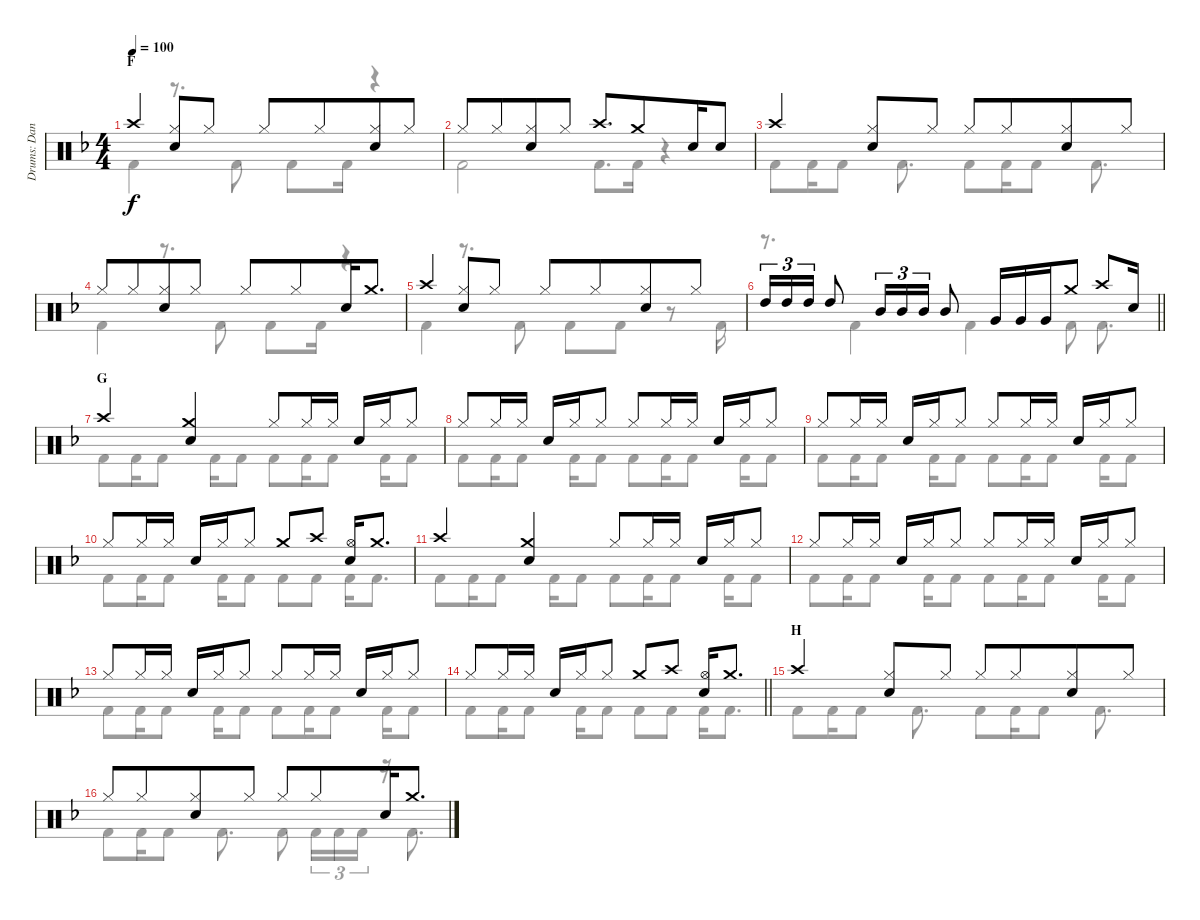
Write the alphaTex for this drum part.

\track ("Drums: Dana" "Drums: Dan") {instrument percussion}
\staff {score}
\articulation defaults
\voice
\ts (4 4)
\section ("" "F")
\tempo 100
\clef neutral
\ks f "Crash high (hit)".4{dy f beam merge}
("Hi-Hat (closed)" "Snare (hit) 2").8 "Hi-Hat (closed)".8 "Hi-Hat (closed)".8 "Hi-Hat (closed)".8{beam merge} ("Hi-Hat (closed)" "Snare (hit) 2").8 "Hi-Hat (closed)".8 |
"Hi-Hat (closed)".8 "Hi-Hat (closed)".8{beam merge} ("Hi-Hat (closed)" "Snare (hit) 2").8 "Hi-Hat (closed)".8 "Crash high (hit)".8{d} "Crash medium (hit)".8{beam merge} "Snare (hit) 2".16 "Snare (hit) 2".8 |
"Crash high (hit)".4{beam merge} ("Hi-Hat (closed)" "Snare (hit) 2").8 "Hi-Hat (closed)".8 "Hi-Hat (closed)".8 "Hi-Hat (closed)".8{beam merge} ("Hi-Hat (closed)" "Snare (hit) 2").8 "Hi-Hat (closed)".8 |
"Hi-Hat (closed)".8 "Hi-Hat (closed)".8{beam merge} ("Hi-Hat (closed)" "Snare (hit) 2").8 "Hi-Hat (closed)".8 "Hi-Hat (closed)".8 "Hi-Hat (closed)".8{beam merge} "Snare (hit) 2".16 "Crash medium (hit)".8{d} |
"Crash high (hit)".4{beam merge} ("Hi-Hat (closed)" "Snare (hit) 2").8 "Hi-Hat (closed)".8 "Hi-Hat (closed)".8 "Hi-Hat (closed)".8{beam merge} ("Hi-Hat (closed)" "Snare (hit) 2").8 "Hi-Hat (closed)".8 |
\barLineRight lightlight "High Tom (hit)".16{tu (3 2)} "High Tom (hit)".16{tu (3 2) beam merge} "High Tom (hit)".16{tu (3 2)} "High Tom (hit)".8 "Mid Tom (hit)".16{tu (3 2)} "Mid Tom (hit)".16{tu (3 2) beam merge} "Mid Tom (hit)".16{tu (3 2)} "Mid Tom (hit)".8 "Very Low Tom (hit)".16 "Very Low Tom (hit)".16{beam merge} "Very Low Tom (hit)".16 "Crash medium (hit)".8 "Crash high (hit)".8 "Snare (hit) 2".16
|
\section ("" "G")
"Crash high (hit)".4 ("Crash medium (hit)" "Snare (hit) 2").4 "Hi-Hat (closed)".8 "Hi-Hat (closed)".16 "Hi-Hat (closed)".16 "Snare (hit) 2".16 "Hi-Hat (closed)".16 "Hi-Hat (closed)".8 |
"Hi-Hat (closed)".8 "Hi-Hat (closed)".16 "Hi-Hat (closed)".16 "Snare (hit) 2".16 "Hi-Hat (closed)".16 "Hi-Hat (closed)".8 "Hi-Hat (closed)".8 "Hi-Hat (closed)".16 "Hi-Hat (closed)".16 "Snare (hit) 2".16 "Hi-Hat (closed)".16 "Hi-Hat (closed)".8 |
"Hi-Hat (closed)".8 "Hi-Hat (closed)".16 "Hi-Hat (closed)".16 "Snare (hit) 2".16 "Hi-Hat (closed)".16 "Hi-Hat (closed)".8 "Hi-Hat (closed)".8 "Hi-Hat (closed)".16 "Hi-Hat (closed)".16 "Snare (hit) 2".16 "Hi-Hat (closed)".16 "Hi-Hat (closed)".8 |
"Hi-Hat (closed)".8 "Hi-Hat (closed)".16 "Hi-Hat (closed)".16 "Snare (hit) 2".16 "Hi-Hat (closed)".16 "Hi-Hat (closed)".8 "Crash medium (hit)".8 "Crash high (hit)".8 ("Hi-Hat (open)" "Snare (hit) 2").16 "Crash medium (hit)".8{d} |
"Crash high (hit)".4 ("Crash medium (hit)" "Snare (hit) 2").4 "Hi-Hat (closed)".8 "Hi-Hat (closed)".16 "Hi-Hat (closed)".16 "Snare (hit) 2".16 "Hi-Hat (closed)".16 "Hi-Hat (closed)".8 |
"Hi-Hat (closed)".8 "Hi-Hat (closed)".16 "Hi-Hat (closed)".16 "Snare (hit) 2".16 "Hi-Hat (closed)".16 "Hi-Hat (closed)".8 "Hi-Hat (closed)".8 "Hi-Hat (closed)".16 "Hi-Hat (closed)".16 "Snare (hit) 2".16 "Hi-Hat (closed)".16 "Hi-Hat (closed)".8 |
"Hi-Hat (closed)".8 "Hi-Hat (closed)".16 "Hi-Hat (closed)".16 "Snare (hit) 2".16 "Hi-Hat (closed)".16 "Hi-Hat (closed)".8 "Hi-Hat (closed)".8 "Hi-Hat (closed)".16 "Hi-Hat (closed)".16 "Snare (hit) 2".16 "Hi-Hat (closed)".16 "Hi-Hat (closed)".8 |
\barLineRight lightlight "Hi-Hat (closed)".8 "Hi-Hat (closed)".16 "Hi-Hat (closed)".16 "Snare (hit) 2".16 "Hi-Hat (closed)".16 "Hi-Hat (closed)".8 "Crash medium (hit)".8 "Crash high (hit)".8
("Hi-Hat (open)" "Snare (hit) 2").16 "Crash medium (hit)".8{d} |
\section ("" "H")
"Crash high (hit)".4{beam merge} ("Hi-Hat (closed)" "Snare (hit) 2").8 "Hi-Hat (closed)".8 "Hi-Hat (closed)".8 "Hi-Hat (closed)".8{beam merge} ("Hi-Hat (closed)" "Snare (hit) 2").8 "Hi-Hat (closed)".8 |
"Hi-Hat (closed)".8 "Hi-Hat (closed)".8{beam merge} ("Hi-Hat (closed)" "Snare (hit) 2").8 "Hi-Hat (closed)".8 "Hi-Hat (closed)".8 "Hi-Hat (closed)".8{beam merge} "Snare (hit) 2".16 "Crash medium (hit)".8{d}
\voice
\clef neutral
\ottava regular
\simile none
\ks f "Kick (hit) 2".4{dy f}
r.8{d} "Kick (hit) 2".8 "Kick (hit) 2".8 "Kick (hit) 2".16 r.4 |
"Kick (hit) 2".2 "Kick (hit) 2".8{d} "Kick (hit) 2".16 r.4 |
"Kick (hit) 2".8 "Kick (hit) 2".16 "Kick (hit) 2".8 "Kick (hit) 2".8{d} "Kick (hit) 2".8 "Kick (hit) 2".16 "Kick (hit) 2".8 "Kick (hit) 2".8{d} |
"Kick (hit) 2".4 r.8{d} "Kick (hit) 2".8 "Kick (hit) 2".8 "Kick (hit) 2".16 r.4 |
"Kick (hit) 2".4 r.8{d} "Kick (hit) 2".8 "Kick (hit) 2".8 "Kick (hit) 2".8 r.8 "Kick (hit) 2".16 |
\barLineRight lightlight
r.8{d} "Kick (hit) 2".4 "Kick (hit) 2".4 "Kick (hit) 2".8 "Kick (hit) 2".8{d} |
"Kick (hit) 2".8 "Kick (hit) 2".16 "Kick (hit) 2".8 "Kick (hit) 2".16 "Kick (hit) 2".8 "Kick (hit) 2".8 "Kick (hit) 2".16 "Kick (hit) 2".8 "Kick (hit) 2".16 "Kick (hit) 2".8 |
"Kick (hit) 2".8 "Kick (hit) 2".16 "Kick (hit) 2".8 "Kick (hit) 2".16 "Kick (hit) 2".8 "Kick (hit) 2".8 "Kick (hit) 2".16 "Kick (hit) 2".8 "Kick (hit) 2".16 "Kick (hit) 2".8 |
"Kick (hit) 2".8 "Kick (hit) 2".16 "Kick (hit) 2".8 "Kick (hit) 2".16 "Kick (hit) 2".8 "Kick (hit) 2".8 "Kick (hit) 2".16 "Kick (hit) 2".8 "Kick (hit) 2".16 "Kick (hit) 2".8 |
"Kick (hit) 2".8 "Kick (hit) 2".16 "Kick (hit) 2".8 "Kick (hit) 2".16 "Kick (hit) 2".8 "Kick (hit) 2".8 "Kick (hit) 2".8 "Kick (hit) 2".16 "Kick (hit) 2".8{d} |
"Kick (hit) 2".8 "Kick (hit) 2".16 "Kick (hit) 2".8 "Kick (hit) 2".16 "Kick (hit) 2".8 "Kick (hit) 2".8 "Kick (hit) 2".16 "Kick (hit) 2".8 "Kick (hit) 2".16 "Kick (hit) 2".8 |
"Kick (hit) 2".8 "Kick (hit) 2".16 "Kick (hit) 2".8 "Kick (hit) 2".16 "Kick (hit) 2".8 "Kick (hit) 2".8 "Kick (hit) 2".16 "Kick (hit) 2".8 "Kick (hit) 2".16 "Kick (hit) 2".8 |
"Kick (hit) 2".8 "Kick (hit) 2".16 "Kick (hit) 2".8 "Kick (hit) 2".16 "Kick (hit) 2".8 "Kick (hit) 2".8 "Kick (hit) 2".16 "Kick (hit) 2".8 "Kick (hit) 2".16 "Kick (hit) 2".8 |
\barLineRight lightlight "Kick (hit) 2".8 "Kick (hit) 2".16 "Kick (hit) 2".8 "Kick (hit) 2".16 "Kick (hit) 2".8 "Kick (hit) 2".8 "Kick (hit) 2".8 "Kick (hit) 2".16 "Kick (hit) 2".8{d}
|
"Kick (hit) 2".8 "Kick (hit) 2".16 "Kick (hit) 2".8 "Kick (hit) 2".8{d} "Kick (hit) 2".8 "Kick (hit) 2".16 "Kick (hit) 2".8 "Kick (hit) 2".8{d} |
"Kick (hit) 2".8 "Kick (hit) 2".16 "Kick (hit) 2".8 "Kick (hit) 2".8{d} "Kick (hit) 2".8 "Kick (hit) 2".16{tu (3 2)} "Kick (hit) 2".16{tu (3 2)} "Kick (hit) 2".16{tu (3 2)} r.16 "Kick (hit) 2".8{d}
